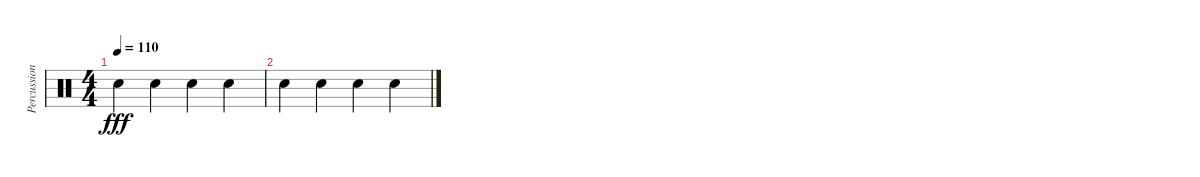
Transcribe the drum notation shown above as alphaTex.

\track ("Percussion" "Percussion") {mute instrument percussion}
\staff {score}
\articulation defaults
\ts (4 4)
\tempo 110
\clef neutral
\ks c "Snare (hit) 2".4{dy fff} "Snare (hit) 2".4 "Snare (hit) 2".4 "Snare (hit) 2".4
|
"Snare (hit) 2".4 "Snare (hit) 2".4 "Snare (hit) 2".4 "Snare (hit) 2".4
